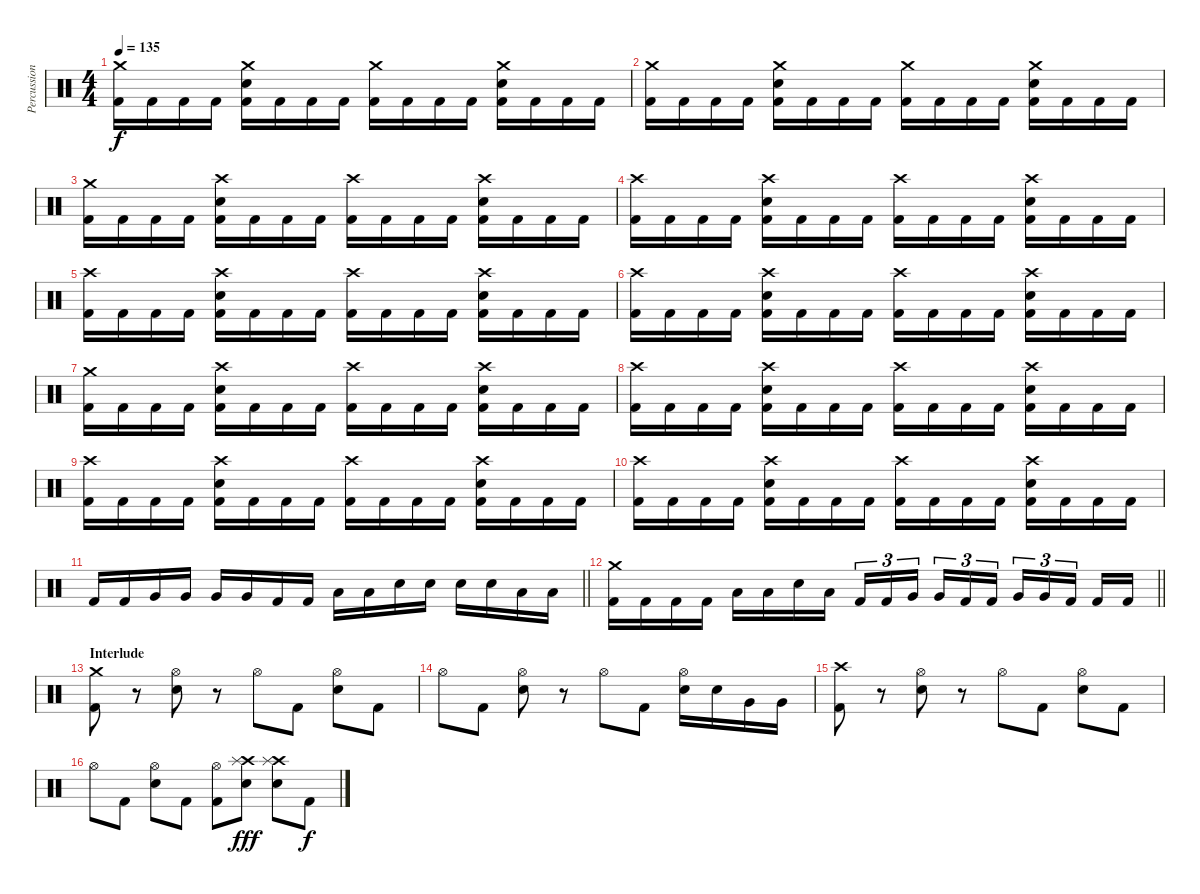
\track ("Percussion" "Percussion") {instrument percussion}
\staff {score}
\articulation defaults
\ts (4 4)
\tempo 135
\clef neutral
\ks c
("Crash medium (hit)" "Kick (hit) 2").16{dy f} "Kick (hit) 2".16 "Kick (hit) 2".16 "Kick (hit) 2".16 ("Crash medium (hit)" "Electric Snare (hit)" "Kick (hit) 2").16 "Kick (hit) 2".16 "Kick (hit) 2".16 "Kick (hit) 2".16 ("Crash medium (hit)" "Kick (hit) 2").16 "Kick (hit) 2".16 "Kick (hit) 2".16 "Kick (hit) 2".16 ("Crash medium (hit)" "Electric Snare (hit)" "Kick (hit) 2").16 "Kick (hit) 2".16 "Kick (hit) 2".16 "Kick (hit) 2".16 |
("Crash medium (hit)" "Kick (hit) 2").16 "Kick (hit) 2".16 "Kick (hit) 2".16 "Kick (hit) 2".16 ("Crash medium (hit)" "Electric Snare (hit)" "Kick (hit) 2").16 "Kick (hit) 2".16 "Kick (hit) 2".16 "Kick (hit) 2".16 ("Crash medium (hit)" "Kick (hit) 2").16 "Kick (hit) 2".16 "Kick (hit) 2".16 "Kick (hit) 2".16 ("Crash medium (hit)" "Electric Snare (hit)" "Kick (hit) 2").16 "Kick (hit) 2".16 "Kick (hit) 2".16 "Kick (hit) 2".16 |
("Crash medium (hit)" "Kick (hit) 2").16 "Kick (hit) 2".16 "Kick (hit) 2".16 "Kick (hit) 2".16 ("Crash high (hit)" "Electric Snare (hit)" "Kick (hit) 2").16 "Kick (hit) 2".16 "Kick (hit) 2".16 "Kick (hit) 2".16 ("Crash high (hit)" "Kick (hit) 2").16 "Kick (hit) 2".16 "Kick (hit) 2".16 "Kick (hit) 2".16 ("Crash high (hit)" "Electric Snare (hit)" "Kick (hit) 2").16 "Kick (hit) 2".16 "Kick (hit) 2".16 "Kick (hit) 2".16 |
("Crash high (hit)" "Kick (hit) 2").16 "Kick (hit) 2".16 "Kick (hit) 2".16 "Kick (hit) 2".16 ("Crash high (hit)" "Electric Snare (hit)" "Kick (hit) 2").16 "Kick (hit) 2".16 "Kick (hit) 2".16 "Kick (hit) 2".16 ("Crash high (hit)" "Kick (hit) 2").16 "Kick (hit) 2".16 "Kick (hit) 2".16 "Kick (hit) 2".16 ("Crash high (hit)" "Electric Snare (hit)" "Kick (hit) 2").16 "Kick (hit) 2".16 "Kick (hit) 2".16 "Kick (hit) 2".16 |
("Crash high (hit)" "Kick (hit) 2").16 "Kick (hit) 2".16 "Kick (hit) 2".16 "Kick (hit) 2".16 ("Crash high (hit)" "Electric Snare (hit)" "Kick (hit) 2").16 "Kick (hit) 2".16 "Kick (hit) 2".16 "Kick (hit) 2".16 ("Crash high (hit)" "Kick (hit) 2").16 "Kick (hit) 2".16 "Kick (hit) 2".16 "Kick (hit) 2".16 ("Crash high (hit)" "Electric Snare (hit)" "Kick (hit) 2").16 "Kick (hit) 2".16 "Kick (hit) 2".16 "Kick (hit) 2".16 |
("Crash high (hit)" "Kick (hit) 2").16 "Kick (hit) 2".16 "Kick (hit) 2".16 "Kick (hit) 2".16 ("Crash high (hit)" "Electric Snare (hit)" "Kick (hit) 2").16 "Kick (hit) 2".16 "Kick (hit) 2".16 "Kick (hit) 2".16 ("Crash high (hit)" "Kick (hit) 2").16 "Kick (hit) 2".16 "Kick (hit) 2".16 "Kick (hit) 2".16 ("Crash high (hit)" "Electric Snare (hit)" "Kick (hit) 2").16 "Kick (hit) 2".16 "Kick (hit) 2".16 "Kick (hit) 2".16 |
("Crash medium (hit)" "Kick (hit) 2").16 "Kick (hit) 2".16 "Kick (hit) 2".16 "Kick (hit) 2".16 ("Crash high (hit)" "Electric Snare (hit)" "Kick (hit) 2").16 "Kick (hit) 2".16 "Kick (hit) 2".16 "Kick (hit) 2".16 ("Crash high (hit)" "Kick (hit) 2").16 "Kick (hit) 2".16 "Kick (hit) 2".16 "Kick (hit) 2".16 ("Crash high (hit)" "Electric Snare (hit)" "Kick (hit) 2").16 "Kick (hit) 2".16 "Kick (hit) 2".16 "Kick (hit) 2".16 |
("Crash high (hit)" "Kick (hit) 2").16 "Kick (hit) 2".16 "Kick (hit) 2".16 "Kick (hit) 2".16 ("Crash high (hit)" "Electric Snare (hit)" "Kick (hit) 2").16 "Kick (hit) 2".16 "Kick (hit) 2".16 "Kick (hit) 2".16 ("Crash high (hit)" "Kick (hit) 2").16 "Kick (hit) 2".16 "Kick (hit) 2".16 "Kick (hit) 2".16 ("Crash high (hit)" "Electric Snare (hit)" "Kick (hit) 2").16 "Kick (hit) 2".16 "Kick (hit) 2".16 "Kick (hit) 2".16 |
("Crash high (hit)" "Kick (hit) 2").16 "Kick (hit) 2".16 "Kick (hit) 2".16 "Kick (hit) 2".16 ("Crash high (hit)" "Electric Snare (hit)" "Kick (hit) 2").16 "Kick (hit) 2".16 "Kick (hit) 2".16 "Kick (hit) 2".16 ("Crash high (hit)" "Kick (hit) 2").16 "Kick (hit) 2".16 "Kick (hit) 2".16 "Kick (hit) 2".16 ("Crash high (hit)" "Electric Snare (hit)" "Kick (hit) 2").16 "Kick (hit) 2".16 "Kick (hit) 2".16 "Kick (hit) 2".16 |
("Crash high (hit)" "Kick (hit) 2").16 "Kick (hit) 2".16 "Kick (hit) 2".16 "Kick (hit) 2".16 ("Crash high (hit)" "Electric Snare (hit)" "Kick (hit) 2").16 "Kick (hit) 2".16 "Kick (hit) 2".16 "Kick (hit) 2".16 ("Crash high (hit)" "Kick (hit) 2").16 "Kick (hit) 2".16 "Kick (hit) 2".16 "Kick (hit) 2".16 ("Crash high (hit)" "Electric Snare (hit)" "Kick (hit) 2").16 "Kick (hit) 2".16 "Kick (hit) 2".16 "Kick (hit) 2".16 |
\barLineRight lightlight "Kick (hit) 2".16 "Kick (hit) 2".16 "Very Low Tom (hit)".16 "Very Low Tom (hit)".16 "Very Low Tom (hit)".16 "Very Low Tom (hit)".16 "Kick (hit) 2".16 "Kick (hit) 2".16 "Low Tom (hit)".16 "Low Tom (hit)".16 "Electric Snare (hit)".16 "Electric Snare (hit)".16 "Electric Snare (hit)".16 "Electric Snare (hit)".16 "Low Tom (hit)".16 "Low Tom (hit)".16
|
\barLineRight lightlight
("Crash medium (hit)" "Kick (hit) 2").16 "Kick (hit) 2".16 "Kick (hit) 2".16 "Kick (hit) 2".16 "Low Tom (hit)".16 "Low Tom (hit)".16 "Electric Snare (hit)".16 "Low Tom (hit)".16 "Kick (hit) 2".16{tu (3 2)} "Kick (hit) 2".16{tu (3 2)} "Very Low Tom (hit)".16{tu (3 2) beam splitsecondary} "Very Low Tom (hit)".16{tu (3 2)} "Kick (hit) 2".16{tu (3 2)} "Kick (hit) 2".16{tu (3 2)} "Very Low Tom (hit)".16{tu (3 2)} "Very Low Tom (hit)".16{tu (3 2)} "Kick (hit) 2".16{tu (3 2) beam splitsecondary} "Kick (hit) 2".16 "Kick (hit) 2".16 |
\section ("" "Interlude")
("Crash medium (hit)" "Kick (hit) 2").8 r.8 ("Hi-Hat (open)" "Electric Snare (hit)").8 r.8 "Hi-Hat (open)".8 "Kick (hit) 2".8 ("Hi-Hat (open)" "Electric Snare (hit)").8 "Kick (hit) 2".8 |
"Hi-Hat (open)".8 "Kick (hit) 2".8 ("Hi-Hat (open)" "Electric Snare (hit)").8 r.8 "Hi-Hat (open)".8 "Kick (hit) 2".8 ("Hi-Hat (open)" "Electric Snare (hit)").16 "Electric Snare (hit)".16 "Very Low Tom (hit)".16 "Very Low Tom (hit)".16 |
("Crash high (hit)" "Kick (hit) 2").8 r.8 ("Hi-Hat (open)" "Electric Snare (hit)").8 r.8 "Hi-Hat (open)".8 "Kick (hit) 2".8 ("Hi-Hat (open)" "Electric Snare (hit)").8 "Kick (hit) 2".8 |
"Hi-Hat (open)".8 "Kick (hit) 2".8 ("Hi-Hat (open)" "Electric Snare (hit)").8 "Kick (hit) 2".8 ("Hi-Hat (open)" "Kick (hit) 2").8 ("Crash high (hit)" "Splash (hit)" "Electric Snare (hit)").8{dy fff} ("Crash high (hit)" "Splash (hit)" "Electric Snare (hit)").8 "Kick (hit) 2".8{dy f}
